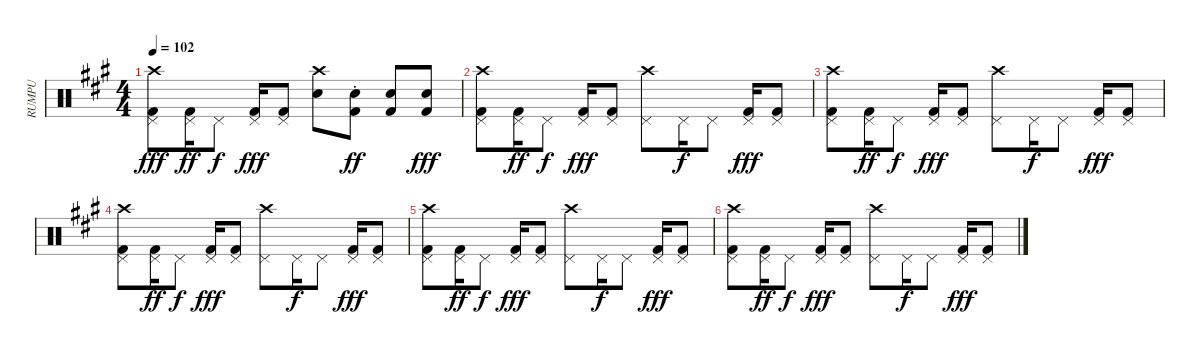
\track ("RUMPU" "RUMPU") {instrument percussion}
\staff {score}
\articulation defaults
\ts (4 4)
\tempo 102
\clef neutral
\ks a
("Crash high (hit)" "Kick (hit) 2" "Pedal Hi-Hat (hit)").8{dy fff} ("Kick (hit) 2" "Pedal Hi-Hat (hit)").16{dy ff} "Pedal Hi-Hat (hit)".8{dy f} ("Kick (hit) 2" "Pedal Hi-Hat (hit)").16{dy fff} ("Kick (hit) 2" "Pedal Hi-Hat (hit)").8 ("Crash high (hit)" "Electric Snare (hit)").8 ("Kick (hit) 2" "Electric Snare (hit)"{st}).8{dy ff} ("Kick (hit) 2" "Electric Snare (hit)").8 ("Kick (hit) 2" "Electric Snare (hit)").8{dy fff} |
("Crash high (hit)" "Kick (hit) 2" "Pedal Hi-Hat (hit)").8 ("Kick (hit) 2" "Pedal Hi-Hat (hit)").16{dy ff} "Pedal Hi-Hat (hit)".8{dy f} ("Kick (hit) 2" "Pedal Hi-Hat (hit)").16{dy fff} ("Kick (hit) 2" "Pedal Hi-Hat (hit)").8 ("Crash high (hit)" "Pedal Hi-Hat (hit)").8 "Pedal Hi-Hat (hit)".16{dy f} "Pedal Hi-Hat (hit)".8 ("Kick (hit) 2" "Pedal Hi-Hat (hit)").16{dy fff} ("Kick (hit) 2" "Pedal Hi-Hat (hit)").8 |
("Crash high (hit)" "Kick (hit) 2" "Pedal Hi-Hat (hit)").8 ("Kick (hit) 2" "Pedal Hi-Hat (hit)").16{dy ff} "Pedal Hi-Hat (hit)".8{dy f} ("Kick (hit) 2" "Pedal Hi-Hat (hit)").16{dy fff} ("Kick (hit) 2" "Pedal Hi-Hat (hit)").8 ("Crash high (hit)" "Pedal Hi-Hat (hit)").8 "Pedal Hi-Hat (hit)".16{dy f} "Pedal Hi-Hat (hit)".8 ("Kick (hit) 2" "Pedal Hi-Hat (hit)").16{dy fff} ("Kick (hit) 2" "Pedal Hi-Hat (hit)").8 |
("Crash high (hit)" "Kick (hit) 2" "Pedal Hi-Hat (hit)").8 ("Kick (hit) 2" "Pedal Hi-Hat (hit)").16{dy ff} "Pedal Hi-Hat (hit)".8{dy f} ("Kick (hit) 2" "Pedal Hi-Hat (hit)").16{dy fff} ("Kick (hit) 2" "Pedal Hi-Hat (hit)").8 ("Crash high (hit)" "Pedal Hi-Hat (hit)").8 "Pedal Hi-Hat (hit)".16{dy f} "Pedal Hi-Hat (hit)".8 ("Kick (hit) 2" "Pedal Hi-Hat (hit)").16{dy fff} ("Kick (hit) 2" "Pedal Hi-Hat (hit)").8 |
("Crash high (hit)" "Kick (hit) 2" "Pedal Hi-Hat (hit)").8 ("Kick (hit) 2" "Pedal Hi-Hat (hit)").16{dy ff} "Pedal Hi-Hat (hit)".8{dy f} ("Kick (hit) 2" "Pedal Hi-Hat (hit)").16{dy fff} ("Kick (hit) 2" "Pedal Hi-Hat (hit)").8 ("Crash high (hit)" "Pedal Hi-Hat (hit)").8 "Pedal Hi-Hat (hit)".16{dy f} "Pedal Hi-Hat (hit)".8 ("Kick (hit) 2" "Pedal Hi-Hat (hit)").16{dy fff} ("Kick (hit) 2" "Pedal Hi-Hat (hit)").8 |
("Crash high (hit)" "Kick (hit) 2" "Pedal Hi-Hat (hit)").8 ("Kick (hit) 2" "Pedal Hi-Hat (hit)").16{dy ff} "Pedal Hi-Hat (hit)".8{dy f} ("Kick (hit) 2" "Pedal Hi-Hat (hit)").16{dy fff} ("Kick (hit) 2" "Pedal Hi-Hat (hit)").8 ("Crash high (hit)" "Pedal Hi-Hat (hit)").8 "Pedal Hi-Hat (hit)".16{dy f} "Pedal Hi-Hat (hit)".8 ("Kick (hit) 2" "Pedal Hi-Hat (hit)").16{dy fff} ("Kick (hit) 2" "Pedal Hi-Hat (hit)").8
